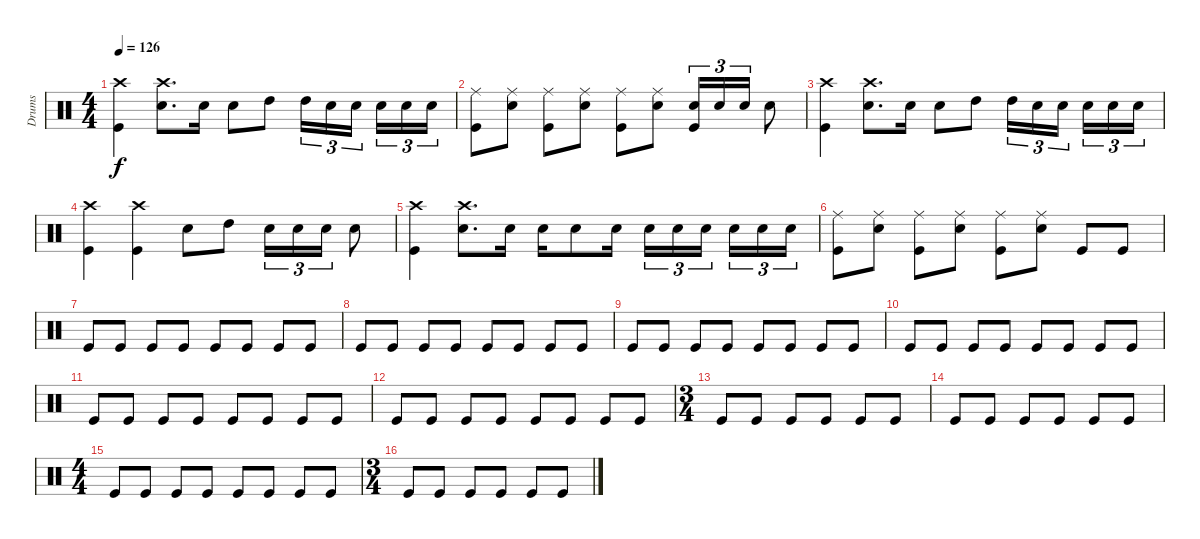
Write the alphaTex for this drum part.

\track ("Drums" "Drums") {instrument percussion}
\staff {score}
\articulation defaults
\ts (4 4)
\tempo 126
\clef neutral
\ks c
("Crash high (hit)" "Kick (hit)").4{dy f} ("Crash high (hit)" "Electric Snare (hit)").8{d} "Electric Snare (hit)".16 "Electric Snare (hit)".8 "High Tom (hit)".8 "High Tom (hit)".16{tu (3 2)} "Electric Snare (hit)".16{tu (3 2)} "Electric Snare (hit)".16{tu (3 2) beam splitsecondary} "Electric Snare (hit)".16{tu (3 2)} "Electric Snare (hit)".16{tu (3 2)} "Electric Snare (hit)".16{tu (3 2)} |
("Ride (middle)" "Kick (hit)").8 ("Ride (middle)" "Electric Snare (hit)").8 ("Ride (middle)" "Kick (hit)").8 ("Ride (middle)" "Electric Snare (hit)").8 ("Ride (middle)" "Kick (hit)").8 ("Ride (middle)" "Electric Snare (hit)").8 ("Electric Snare (hit)" "Kick (hit)").16{tu (3 2)} "Electric Snare (hit)".16{tu (3 2)} "Electric Snare (hit)".16{tu (3 2)} "Electric Snare (hit)".8 |
("Crash high (hit)" "Kick (hit)").4 ("Crash high (hit)" "Electric Snare (hit)").8{d} "Electric Snare (hit)".16 "Electric Snare (hit)".8 "High Tom (hit)".8 "High Tom (hit)".16{tu (3 2)} "Electric Snare (hit)".16{tu (3 2)} "Electric Snare (hit)".16{tu (3 2) beam splitsecondary} "Electric Snare (hit)".16{tu (3 2)} "Electric Snare (hit)".16{tu (3 2)} "Electric Snare (hit)".16{tu (3 2)} |
("Crash high (hit)" "Kick (hit)").4 ("Crash high (hit)" "Kick (hit)").4 "Electric Snare (hit)".8 "High Tom (hit)".8 "Electric Snare (hit)".16{tu (3 2)} "Electric Snare (hit)".16{tu (3 2)} "Electric Snare (hit)".16{tu (3 2)} "Electric Snare (hit)".8 |
("Crash high (hit)" "Kick (hit)").4 ("Crash high (hit)" "Electric Snare (hit)").8{d} "Electric Snare (hit)".16 "Electric Snare (hit)".16 "Electric Snare (hit)".8 "Electric Snare (hit)".16 "Electric Snare (hit)".16{tu (3 2)} "Electric Snare (hit)".16{tu (3 2)} "Electric Snare (hit)".16{tu (3 2) beam splitsecondary} "Electric Snare (hit)".16{tu (3 2)} "Electric Snare (hit)".16{tu (3 2)} "Electric Snare (hit)".16{tu (3 2)} |
("Ride (middle)" "Kick (hit)").8 ("Ride (middle)" "Electric Snare (hit)").8 ("Ride (middle)" "Kick (hit)").8 ("Ride (middle)" "Electric Snare (hit)").8 ("Ride (middle)" "Kick (hit)").8 ("Ride (middle)" "Electric Snare (hit)").8 "Kick (hit)".8 "Kick (hit)".8 |
"Kick (hit)".8 "Kick (hit)".8 "Kick (hit)".8 "Kick (hit)".8 "Kick (hit)".8 "Kick (hit)".8 "Kick (hit)".8 "Kick (hit)".8 |
"Kick (hit)".8 "Kick (hit)".8 "Kick (hit)".8 "Kick (hit)".8 "Kick (hit)".8 "Kick (hit)".8 "Kick (hit)".8 "Kick (hit)".8 |
"Kick (hit)".8 "Kick (hit)".8 "Kick (hit)".8 "Kick (hit)".8 "Kick (hit)".8 "Kick (hit)".8 "Kick (hit)".8 "Kick (hit)".8 |
"Kick (hit)".8 "Kick (hit)".8 "Kick (hit)".8 "Kick (hit)".8 "Kick (hit)".8 "Kick (hit)".8 "Kick (hit)".8 "Kick (hit)".8 |
"Kick (hit)".8 "Kick (hit)".8 "Kick (hit)".8 "Kick (hit)".8 "Kick (hit)".8 "Kick (hit)".8 "Kick (hit)".8 "Kick (hit)".8 |
"Kick (hit)".8 "Kick (hit)".8 "Kick (hit)".8 "Kick (hit)".8 "Kick (hit)".8 "Kick (hit)".8 "Kick (hit)".8 "Kick (hit)".8 |
\ts (3 4)
"Kick (hit)".8 "Kick (hit)".8 "Kick (hit)".8 "Kick (hit)".8 "Kick (hit)".8 "Kick (hit)".8 |
"Kick (hit)".8 "Kick (hit)".8 "Kick (hit)".8 "Kick (hit)".8 "Kick (hit)".8 "Kick (hit)".8 |
\ts (4 4)
"Kick (hit)".8 "Kick (hit)".8 "Kick (hit)".8 "Kick (hit)".8 "Kick (hit)".8 "Kick (hit)".8 "Kick (hit)".8 "Kick (hit)".8 |
\ts (3 4)
"Kick (hit)".8 "Kick (hit)".8 "Kick (hit)".8 "Kick (hit)".8 "Kick (hit)".8 "Kick (hit)".8
